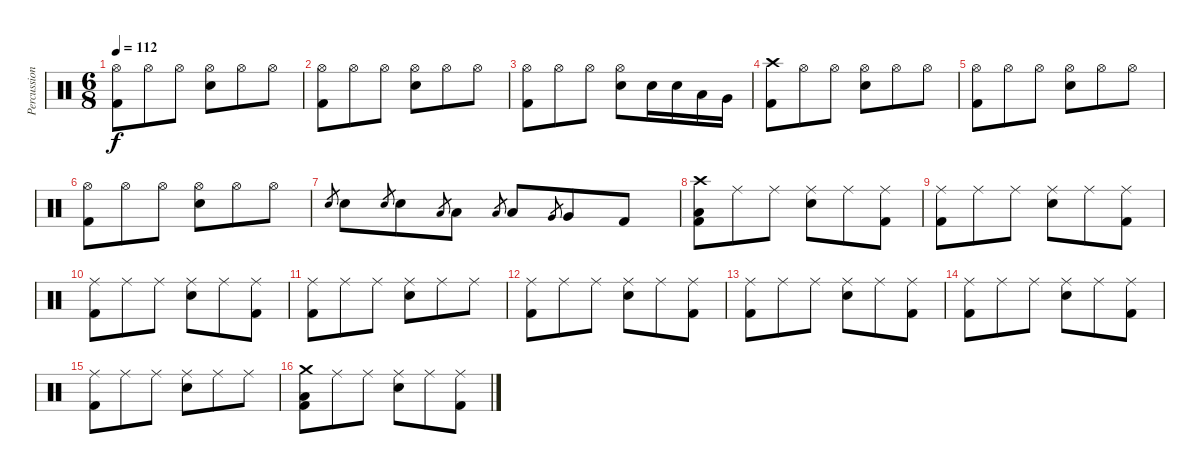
\track ("Percussion" "Percussion") {instrument percussion}
\staff {score}
\articulation defaults
\ts (6 8)
\tempo 112
\clef neutral
\ks c
("Hi-Hat (open)" "Kick (hit) 2").8{dy f} "Hi-Hat (open)".8 "Hi-Hat (open)".8 ("Hi-Hat (open)" "Electric Snare (hit)").8 "Hi-Hat (open)".8 "Hi-Hat (open)".8 |
("Hi-Hat (open)" "Kick (hit) 2").8 "Hi-Hat (open)".8 "Hi-Hat (open)".8 ("Hi-Hat (open)" "Electric Snare (hit)").8 "Hi-Hat (open)".8 "Hi-Hat (open)".8 |
("Hi-Hat (open)" "Kick (hit) 2").8 "Hi-Hat (open)".8 "Hi-Hat (open)".8 ("Hi-Hat (open)" "Electric Snare (hit)").8 "Electric Snare (hit)".16 "Electric Snare (hit)".16 "Low Tom (hit)".16 "Very Low Tom (hit)".16 |
("Crash high (hit)" "Kick (hit) 2").8 "Hi-Hat (open)".8 "Hi-Hat (open)".8 ("Hi-Hat (open)" "Electric Snare (hit)").8 "Hi-Hat (open)".8 "Hi-Hat (open)".8 |
("Hi-Hat (open)" "Kick (hit) 2").8 "Hi-Hat (open)".8 "Hi-Hat (open)".8 ("Hi-Hat (open)" "Electric Snare (hit)").8 "Hi-Hat (open)".8 "Hi-Hat (open)".8 |
("Hi-Hat (open)" "Kick (hit) 2").8 "Hi-Hat (open)".8 "Hi-Hat (open)".8 ("Hi-Hat (open)" "Electric Snare (hit)").8 "Hi-Hat (open)".8 "Hi-Hat (open)".8 |
"Electric Snare (hit)".8{gr} "Electric Snare (hit)".8 "Electric Snare (hit)".8{gr} "Electric Snare (hit)".8 "Low Tom (hit)".8{gr} "Low Tom (hit)".8 "Low Tom (hit)".8{gr} "Low Tom (hit)".8 "Very Low Tom (hit)".8{gr} "Very Low Tom (hit)".8 "Kick (hit) 2".8 |
("Crash high (hit)" "Low Tom (hit)" "Kick (hit) 2").8 "Ride (middle)".8 "Ride (middle)".8 ("Ride (middle)" "Electric Snare (hit)").8 "Ride (middle)".8 ("Ride (middle)" "Kick (hit) 2").8 |
("Ride (middle)" "Kick (hit) 2").8 "Ride (middle)".8 "Ride (middle)".8 ("Ride (middle)" "Electric Snare (hit)").8 "Ride (middle)".8 ("Ride (middle)" "Kick (hit) 2").8 |
("Ride (middle)" "Kick (hit) 2").8 "Ride (middle)".8 "Ride (middle)".8 ("Ride (middle)" "Electric Snare (hit)").8 "Ride (middle)".8 ("Ride (middle)" "Kick (hit) 2").8 |
("Ride (middle)" "Kick (hit) 2").8 "Ride (middle)".8 "Ride (middle)".8 ("Ride (middle)" "Electric Snare (hit)").8 "Ride (middle)".8 "Ride (middle)".8 |
("Ride (middle)" "Kick (hit) 2").8 "Ride (middle)".8 "Ride (middle)".8 ("Ride (middle)" "Electric Snare (hit)").8 "Ride (middle)".8 ("Ride (middle)" "Kick (hit) 2").8 |
("Ride (middle)" "Kick (hit) 2").8 "Ride (middle)".8 "Ride (middle)".8 ("Ride (middle)" "Electric Snare (hit)").8 "Ride (middle)".8 ("Ride (middle)" "Kick (hit) 2").8 |
("Ride (middle)" "Kick (hit) 2").8 "Ride (middle)".8 "Ride (middle)".8 ("Ride (middle)" "Electric Snare (hit)").8 "Ride (middle)".8 ("Ride (middle)" "Kick (hit) 2").8 |
("Ride (middle)" "Kick (hit) 2").8 "Ride (middle)".8 "Ride (middle)".8 ("Ride (middle)" "Electric Snare (hit)").8 "Ride (middle)".8 "Ride (middle)".8 |
("Crash medium (hit)" "Low Tom (hit)" "Kick (hit) 2").8 "Ride (middle)".8 "Ride (middle)".8 ("Ride (middle)" "Electric Snare (hit)").8 "Ride (middle)".8 ("Ride (middle)" "Kick (hit) 2").8
